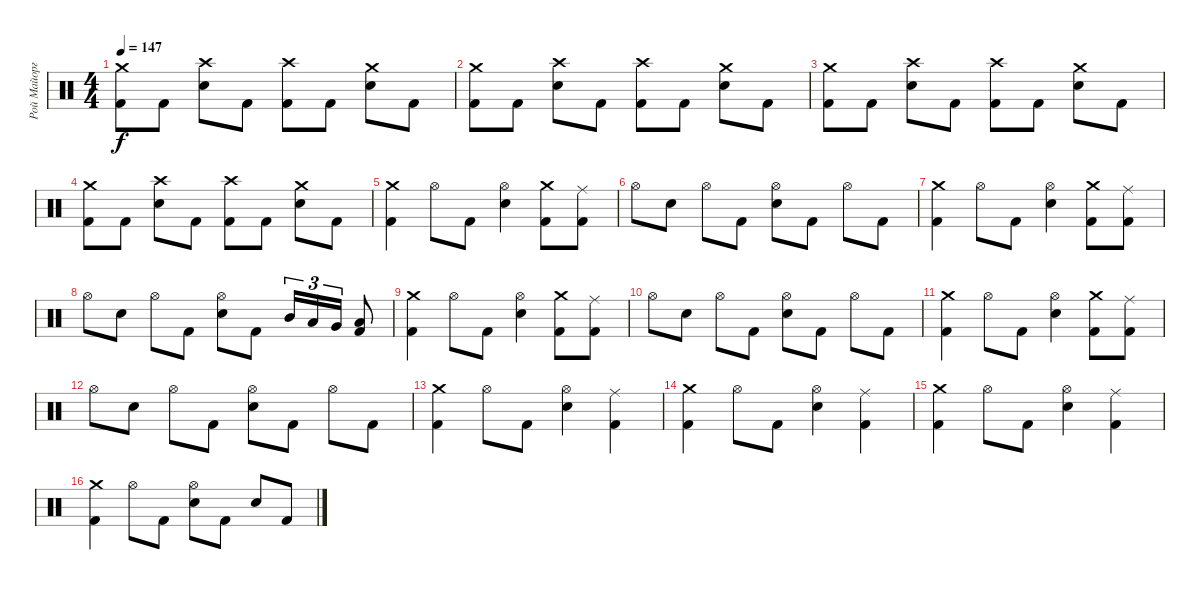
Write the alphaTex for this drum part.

\track ("Рой Майорга" "Рой Майорг") {instrument percussion}
\staff {score}
\articulation defaults
\ts (4 4)
\tempo 147
\clef neutral
\ks c
("Crash medium (hit)" "Kick (hit) 2").8{dy f} "Kick (hit) 2".8 ("Crash high (hit)" "Electric Snare (hit)").8 "Kick (hit) 2".8 ("Crash high (hit)" "Kick (hit) 2").8 "Kick (hit) 2".8 ("Crash medium (hit)" "Electric Snare (hit)").8 "Kick (hit) 2".8 |
("Crash medium (hit)" "Kick (hit) 2").8 "Kick (hit) 2".8 ("Crash high (hit)" "Electric Snare (hit)").8 "Kick (hit) 2".8 ("Crash high (hit)" "Kick (hit) 2").8 "Kick (hit) 2".8 ("Crash medium (hit)" "Electric Snare (hit)").8 "Kick (hit) 2".8 |
("Crash medium (hit)" "Kick (hit) 2").8 "Kick (hit) 2".8 ("Crash high (hit)" "Electric Snare (hit)").8 "Kick (hit) 2".8 ("Crash high (hit)" "Kick (hit) 2").8 "Kick (hit) 2".8 ("Crash medium (hit)" "Electric Snare (hit)").8 "Kick (hit) 2".8 |
("Crash medium (hit)" "Kick (hit) 2").8 "Kick (hit) 2".8 ("Crash high (hit)" "Electric Snare (hit)").8 "Kick (hit) 2".8 ("Crash high (hit)" "Kick (hit) 2").8 "Kick (hit) 2".8 ("Crash medium (hit)" "Electric Snare (hit)").8 "Kick (hit) 2".8 |
("Crash medium (hit)" "Kick (hit) 2").4 "Hi-Hat (open)".8 "Kick (hit) 2".8 ("Hi-Hat (open)" "Electric Snare (hit)").4 ("Crash medium (hit)" "Kick (hit) 2").8 ("Ride (middle)" "Kick (hit) 2").8 |
"Hi-Hat (open)".8 "Electric Snare (hit)".8 "Hi-Hat (open)".8 "Kick (hit) 2".8 ("Hi-Hat (open)" "Electric Snare (hit)").8 "Kick (hit) 2".8 "Hi-Hat (open)".8 "Kick (hit) 2".8 |
("Crash medium (hit)" "Kick (hit) 2").4 "Hi-Hat (open)".8 "Kick (hit) 2".8 ("Hi-Hat (open)" "Electric Snare (hit)").4 ("Crash medium (hit)" "Kick (hit) 2").8 ("Ride (middle)" "Kick (hit) 2").8 |
"Hi-Hat (open)".8 "Electric Snare (hit)".8 "Hi-Hat (open)".8 "Kick (hit) 2".8 ("Hi-Hat (open)" "Electric Snare (hit)").8 "Kick (hit) 2".8 "Mid Tom (hit)".16{tu (3 2)} "Low Tom (hit)".16{tu (3 2)} "Very Low Tom (hit)".16{tu (3 2)} ("Low Floor Tom (hit)" "Kick (hit) 2").8 |
("Crash medium (hit)" "Kick (hit) 2").4 "Hi-Hat (open)".8 "Kick (hit) 2".8 ("Hi-Hat (open)" "Electric Snare (hit)").4 ("Crash medium (hit)" "Kick (hit) 2").8 ("Ride (middle)" "Kick (hit) 2").8 |
"Hi-Hat (open)".8 "Electric Snare (hit)".8 "Hi-Hat (open)".8 "Kick (hit) 2".8 ("Hi-Hat (open)" "Electric Snare (hit)").8 "Kick (hit) 2".8 "Hi-Hat (open)".8 "Kick (hit) 2".8 |
("Crash medium (hit)" "Kick (hit) 2").4 "Hi-Hat (open)".8 "Kick (hit) 2".8 ("Hi-Hat (open)" "Electric Snare (hit)").4 ("Crash medium (hit)" "Kick (hit) 2").8 ("Ride (middle)" "Kick (hit) 2").8 |
"Hi-Hat (open)".8 "Electric Snare (hit)".8 "Hi-Hat (open)".8 "Kick (hit) 2".8 ("Hi-Hat (open)" "Electric Snare (hit)").8 "Kick (hit) 2".8 "Hi-Hat (open)".8 "Kick (hit) 2".8 |
("Crash medium (hit)" "Kick (hit) 2").4 "Hi-Hat (open)".8 "Kick (hit) 2".8 ("Hi-Hat (open)" "Electric Snare (hit)").4 ("Ride (middle)" "Kick (hit) 2").4 |
("Crash medium (hit)" "Kick (hit) 2").4 "Hi-Hat (open)".8 "Kick (hit) 2".8 ("Hi-Hat (open)" "Electric Snare (hit)").4 ("Ride (middle)" "Kick (hit) 2").4 |
("Crash medium (hit)" "Kick (hit) 2").4 "Hi-Hat (open)".8 "Kick (hit) 2".8 ("Hi-Hat (open)" "Electric Snare (hit)").4 ("Ride (middle)" "Kick (hit) 2").4 |
("Crash medium (hit)" "Kick (hit) 2").4 "Hi-Hat (open)".8 "Kick (hit) 2".8 ("Hi-Hat (open)" "Electric Snare (hit)").8 "Kick (hit) 2".8 "Electric Snare (hit)".8 "Kick (hit) 2".8
